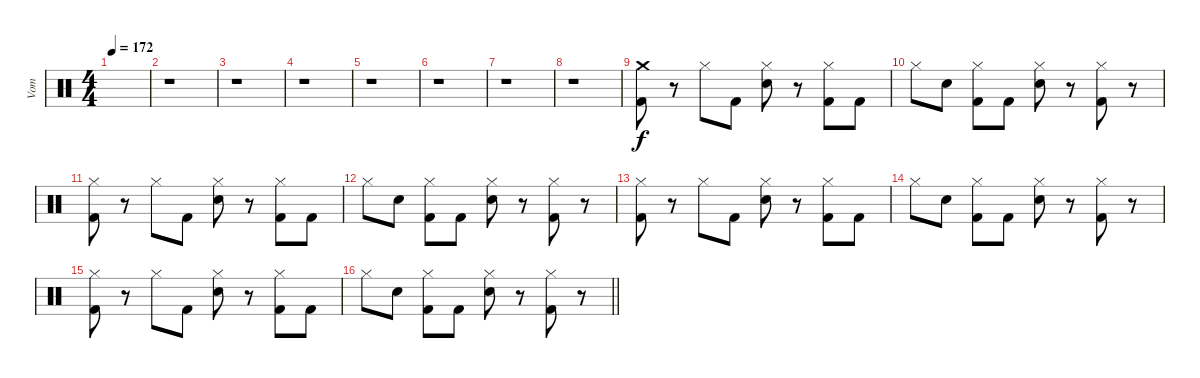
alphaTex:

\track ("Vom" "Vom") {instrument percussion}
\staff {score}
\articulation defaults
\ts (4 4)
\tempo 172
\clef neutral
\ks c
|
r.1 |
r.1 |
r.1 |
r.1 |
r.1 |
r.1 |
r.1 |
("Crash medium (hit)" "Kick (hit) 2").8 r.8 "Hi-Hat (closed)".8 "Kick (hit) 2".8 ("Hi-Hat (closed)" "Snare (hit) 2").8 r.8 ("Hi-Hat (closed)" "Kick (hit) 2").8 "Kick (hit) 2".8 |
"Hi-Hat (closed)".8 "Snare (hit) 2".8 ("Hi-Hat (closed)" "Kick (hit) 2").8 "Kick (hit) 2".8 ("Hi-Hat (closed)" "Snare (hit) 2").8 r.8 ("Hi-Hat (closed)" "Kick (hit) 2").8 r.8 |
("Hi-Hat (closed)" "Kick (hit) 2").8 r.8 "Hi-Hat (closed)".8 "Kick (hit) 2".8 ("Hi-Hat (closed)" "Snare (hit) 2").8 r.8 ("Hi-Hat (closed)" "Kick (hit) 2").8 "Kick (hit) 2".8 |
"Hi-Hat (closed)".8 "Snare (hit) 2".8 ("Hi-Hat (closed)" "Kick (hit) 2").8 "Kick (hit) 2".8 ("Hi-Hat (closed)" "Snare (hit) 2").8 r.8 ("Hi-Hat (closed)" "Kick (hit) 2").8 r.8 |
("Hi-Hat (closed)" "Kick (hit) 2").8 r.8 "Hi-Hat (closed)".8 "Kick (hit) 2".8 ("Hi-Hat (closed)" "Snare (hit) 2").8 r.8 ("Hi-Hat (closed)" "Kick (hit) 2").8 "Kick (hit) 2".8 |
"Hi-Hat (closed)".8 "Snare (hit) 2".8 ("Hi-Hat (closed)" "Kick (hit) 2").8 "Kick (hit) 2".8 ("Hi-Hat (closed)" "Snare (hit) 2").8 r.8 ("Hi-Hat (closed)" "Kick (hit) 2").8 r.8 |
("Hi-Hat (closed)" "Kick (hit) 2").8 r.8 "Hi-Hat (closed)".8 "Kick (hit) 2".8 ("Hi-Hat (closed)" "Snare (hit) 2").8 r.8 ("Hi-Hat (closed)" "Kick (hit) 2").8 "Kick (hit) 2".8 |
\barLineRight lightlight "Hi-Hat (closed)".8 "Snare (hit) 2".8
("Hi-Hat (closed)" "Kick (hit) 2").8 "Kick (hit) 2".8 ("Hi-Hat (closed)" "Snare (hit) 2").8 r.8 ("Hi-Hat (closed)" "Kick (hit) 2").8 r.8
